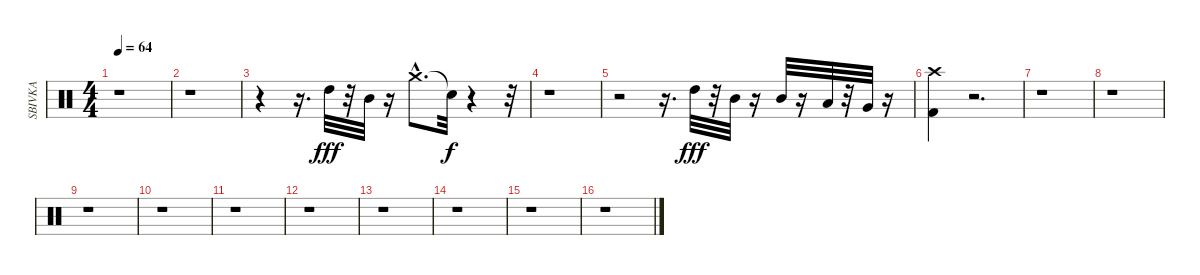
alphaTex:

\track ("SBIVKA" "SBIVKA") {instrument percussion}
\staff {score}
\articulation defaults
\ts (4 4)
\tempo 64
\clef neutral
\ks c
r.1{dy fff} |
r.1 |
r.4 r.16{d} "High Tom (hit)".32 r.32 "Mid Tom (hit)".32 r.16 "Crash medium (hit)"{hac}.8{d} "Snare (hit)"{t}.32{dy f} r.4 r.32 |
r.1 |
r.2 r.16{d} "High Tom (hit)".32{dy fff} r.32 "Mid Tom (hit)".32 r.16 "Mid Tom (hit)".32 r.16 "Low Tom (hit)".32 r.32 "Very Low Tom (hit)".32 r.16 |
("Kick (hit) 2" "Crash high (hit)").4 r.2{d} |
r.1 |
r.1 |
r.1 |
r.1 |
r.1 |
r.1 |
r.1 |
r.1 |
r.1 |
r.1
